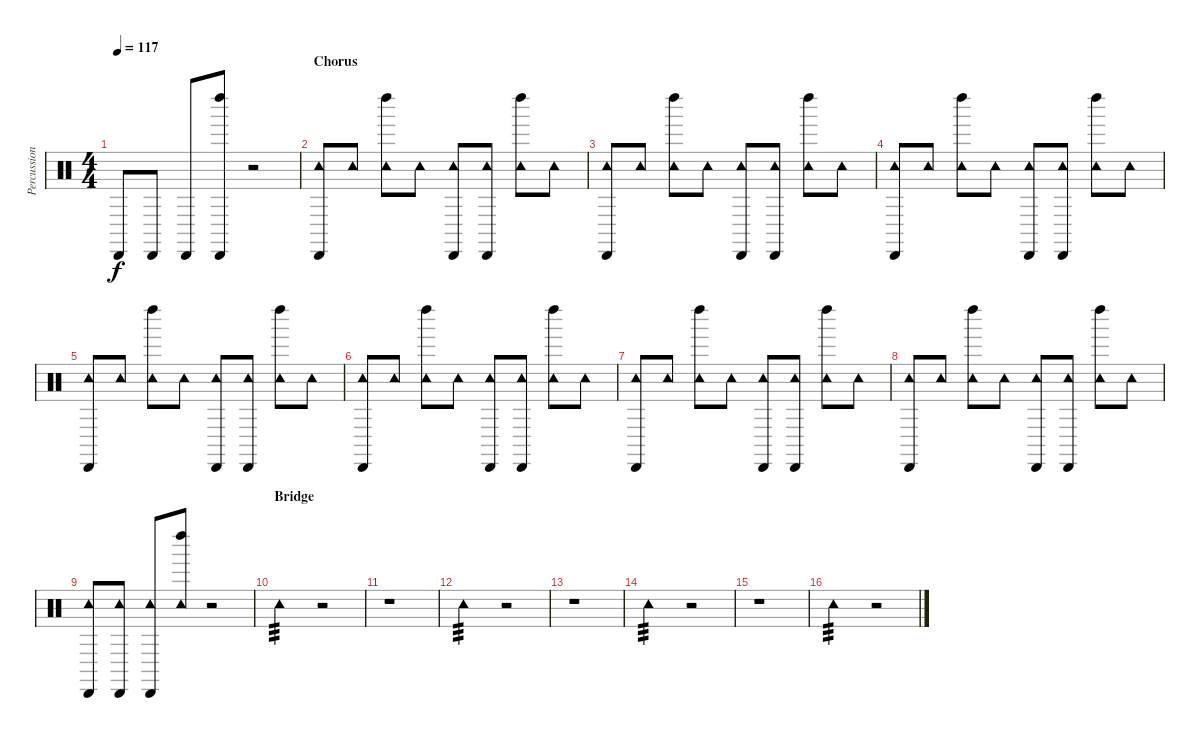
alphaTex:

\track ("Percussion" "Percussion") {instrument percussion}
\staff {score}
\articulation defaults
\ts (4 4)
\tempo 117
\clef neutral
\ks c "Cabasa (hit)".8{dy f} "Cabasa (hit)".8 "Cabasa (hit)".8
("Cabasa (hit)" "Left Maraca (hit)").8 r.2 |
\section ("" "Chorus")
("Tambourine (hit)" "Cabasa (hit)").8 "Tambourine (hit)".8 ("Tambourine (hit)" "Left Maraca (hit)").8 "Tambourine (hit)".8 ("Tambourine (hit)" "Cabasa (hit)").8 ("Tambourine (hit)" "Cabasa (hit)").8 ("Tambourine (hit)" "Left Maraca (hit)").8 "Tambourine (hit)".8 |
("Tambourine (hit)" "Cabasa (hit)").8 "Tambourine (hit)".8 ("Tambourine (hit)" "Left Maraca (hit)").8 "Tambourine (hit)".8 ("Tambourine (hit)" "Cabasa (hit)").8 ("Tambourine (hit)" "Cabasa (hit)").8 ("Tambourine (hit)" "Left Maraca (hit)").8 "Tambourine (hit)".8 |
("Tambourine (hit)" "Cabasa (hit)").8 "Tambourine (hit)".8 ("Tambourine (hit)" "Left Maraca (hit)").8 "Tambourine (hit)".8 ("Tambourine (hit)" "Cabasa (hit)").8 ("Tambourine (hit)" "Cabasa (hit)").8 ("Tambourine (hit)" "Left Maraca (hit)").8 "Tambourine (hit)".8 |
("Tambourine (hit)" "Cabasa (hit)").8 "Tambourine (hit)".8 ("Tambourine (hit)" "Left Maraca (hit)").8 "Tambourine (hit)".8 ("Tambourine (hit)" "Cabasa (hit)").8 ("Tambourine (hit)" "Cabasa (hit)").8 ("Tambourine (hit)" "Left Maraca (hit)").8 "Tambourine (hit)".8 |
("Tambourine (hit)" "Cabasa (hit)").8 "Tambourine (hit)".8 ("Tambourine (hit)" "Left Maraca (hit)").8 "Tambourine (hit)".8 ("Tambourine (hit)" "Cabasa (hit)").8 ("Tambourine (hit)" "Cabasa (hit)").8 ("Tambourine (hit)" "Left Maraca (hit)").8 "Tambourine (hit)".8 |
("Tambourine (hit)" "Cabasa (hit)").8 "Tambourine (hit)".8 ("Tambourine (hit)" "Left Maraca (hit)").8 "Tambourine (hit)".8 ("Tambourine (hit)" "Cabasa (hit)").8 ("Tambourine (hit)" "Cabasa (hit)").8 ("Tambourine (hit)" "Left Maraca (hit)").8 "Tambourine (hit)".8 |
("Tambourine (hit)" "Cabasa (hit)").8 "Tambourine (hit)".8 ("Tambourine (hit)" "Left Maraca (hit)").8 "Tambourine (hit)".8 ("Tambourine (hit)" "Cabasa (hit)").8 ("Tambourine (hit)" "Cabasa (hit)").8 ("Tambourine (hit)" "Left Maraca (hit)").8 "Tambourine (hit)".8 |
("Tambourine (hit)" "Cabasa (hit)").8 ("Tambourine (hit)" "Cabasa (hit)").8 ("Tambourine (hit)" "Cabasa (hit)").8 ("Tambourine (hit)" "Left Maraca (hit)").8 r.2 |
\section ("" "Bridge")
"Tambourine (hit)".2{tp 3} r.2 |
r.1 |
"Tambourine (hit)".2{tp 3} r.2 |
r.1 |
"Tambourine (hit)".2{tp 3} r.2 |
r.1 |
"Tambourine (hit)".2{tp 3} r.2
